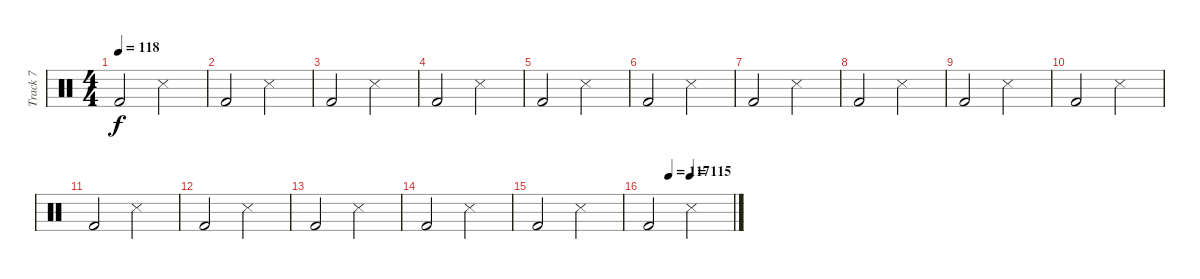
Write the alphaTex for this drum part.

\track ("Track 7" "Track 7") {instrument percussion}
\staff {score}
\articulation defaults
\ts (4 4)
\tempo 118
\clef neutral
\ks c "Kick (hit) 2".2{dy f} "Snare (side stick) 3".2
|
"Kick (hit) 2".2 "Snare (side stick) 3".2 |
"Kick (hit) 2".2 "Snare (side stick) 3".2 |
"Kick (hit) 2".2 "Snare (side stick) 3".2 |
"Kick (hit) 2".2 "Snare (side stick) 3".2 |
"Kick (hit) 2".2 "Snare (side stick) 3".2 |
"Kick (hit) 2".2 "Snare (side stick) 3".2 |
"Kick (hit) 2".2 "Snare (side stick) 3".2 |
"Kick (hit) 2".2 "Snare (side stick) 3".2 |
"Kick (hit) 2".2 "Snare (side stick) 3".2 |
"Kick (hit) 2".2 "Snare (side stick) 3".2 |
"Kick (hit) 2".2 "Snare (side stick) 3".2 |
"Kick (hit) 2".2 "Snare (side stick) 3".2 |
"Kick (hit) 2".2 "Snare (side stick) 3".2 |
"Kick (hit) 2".2 "Snare (side stick) 3".2 |
\tempo (117 0.25)
\tempo (115 0.5)
"Kick (hit) 2".2 "Snare (side stick) 3".2
